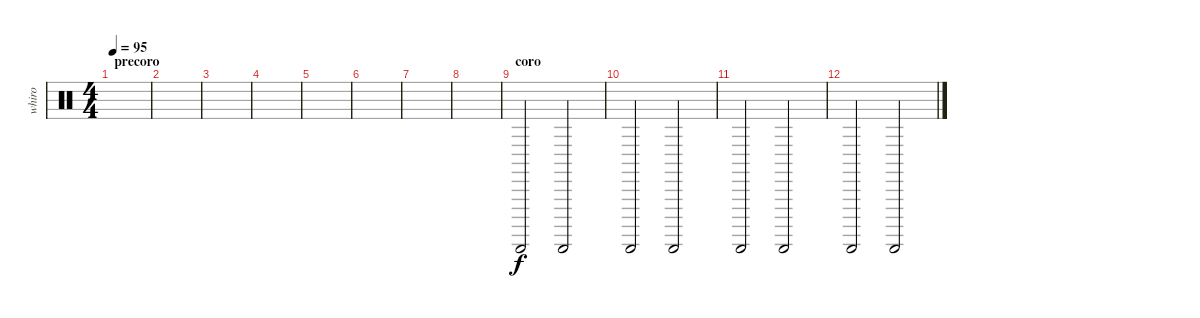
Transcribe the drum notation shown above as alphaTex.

\track ("whiro" "whiro") {instrument percussion}
\staff {score}
\articulation defaults
\ts (4 4)
\section ("" "precoro")
\tempo 95
\clef neutral
\ks c
|
|
|
|
|
|
|
|
\section ("" "coro")
"Guiro (scrap-return)".2 "Guiro (scrap-return)".2 |
"Guiro (scrap-return)".2 "Guiro (scrap-return)".2 |
"Guiro (scrap-return)".2 "Guiro (scrap-return)".2 |
"Guiro (scrap-return)".2 "Guiro (scrap-return)".2
